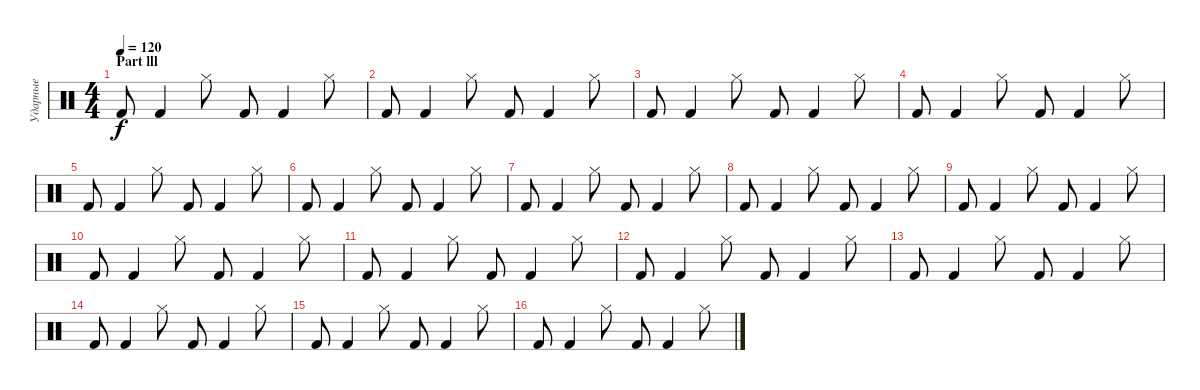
\track ("Ударные" "Ударные") {instrument percussion}
\staff {score}
\articulation defaults
\ts (4 4)
\section ("" "Part lll")
\tempo 120
\clef neutral
\ks c "Kick (hit) 2".8{dy f} "Kick (hit) 2".4 "Hi-Hat (closed)".8 "Kick (hit) 2".8 "Kick (hit) 2".4 "Hi-Hat (closed)".8
|
"Kick (hit) 2".8 "Kick (hit) 2".4 "Hi-Hat (closed)".8 "Kick (hit) 2".8 "Kick (hit) 2".4 "Hi-Hat (closed)".8 |
"Kick (hit) 2".8 "Kick (hit) 2".4 "Hi-Hat (closed)".8 "Kick (hit) 2".8 "Kick (hit) 2".4 "Hi-Hat (closed)".8 |
"Kick (hit) 2".8 "Kick (hit) 2".4 "Hi-Hat (closed)".8 "Kick (hit) 2".8 "Kick (hit) 2".4 "Hi-Hat (closed)".8 |
"Kick (hit) 2".8 "Kick (hit) 2".4 "Hi-Hat (closed)".8 "Kick (hit) 2".8 "Kick (hit) 2".4 "Hi-Hat (closed)".8 |
"Kick (hit) 2".8 "Kick (hit) 2".4 "Hi-Hat (closed)".8 "Kick (hit) 2".8 "Kick (hit) 2".4 "Hi-Hat (closed)".8 |
"Kick (hit) 2".8 "Kick (hit) 2".4 "Hi-Hat (closed)".8 "Kick (hit) 2".8 "Kick (hit) 2".4 "Hi-Hat (closed)".8 |
"Kick (hit) 2".8 "Kick (hit) 2".4 "Hi-Hat (closed)".8 "Kick (hit) 2".8 "Kick (hit) 2".4 "Hi-Hat (closed)".8 |
"Kick (hit) 2".8 "Kick (hit) 2".4 "Hi-Hat (closed)".8 "Kick (hit) 2".8 "Kick (hit) 2".4 "Hi-Hat (closed)".8 |
"Kick (hit) 2".8 "Kick (hit) 2".4 "Hi-Hat (closed)".8 "Kick (hit) 2".8 "Kick (hit) 2".4 "Hi-Hat (closed)".8 |
"Kick (hit) 2".8 "Kick (hit) 2".4 "Hi-Hat (closed)".8 "Kick (hit) 2".8 "Kick (hit) 2".4 "Hi-Hat (closed)".8 |
"Kick (hit) 2".8 "Kick (hit) 2".4 "Hi-Hat (closed)".8 "Kick (hit) 2".8 "Kick (hit) 2".4 "Hi-Hat (closed)".8 |
"Kick (hit) 2".8 "Kick (hit) 2".4 "Hi-Hat (closed)".8 "Kick (hit) 2".8 "Kick (hit) 2".4 "Hi-Hat (closed)".8 |
"Kick (hit) 2".8 "Kick (hit) 2".4 "Hi-Hat (closed)".8 "Kick (hit) 2".8 "Kick (hit) 2".4 "Hi-Hat (closed)".8 |
"Kick (hit) 2".8 "Kick (hit) 2".4 "Hi-Hat (closed)".8 "Kick (hit) 2".8 "Kick (hit) 2".4 "Hi-Hat (closed)".8 |
"Kick (hit) 2".8 "Kick (hit) 2".4 "Hi-Hat (closed)".8 "Kick (hit) 2".8 "Kick (hit) 2".4 "Hi-Hat (closed)".8
